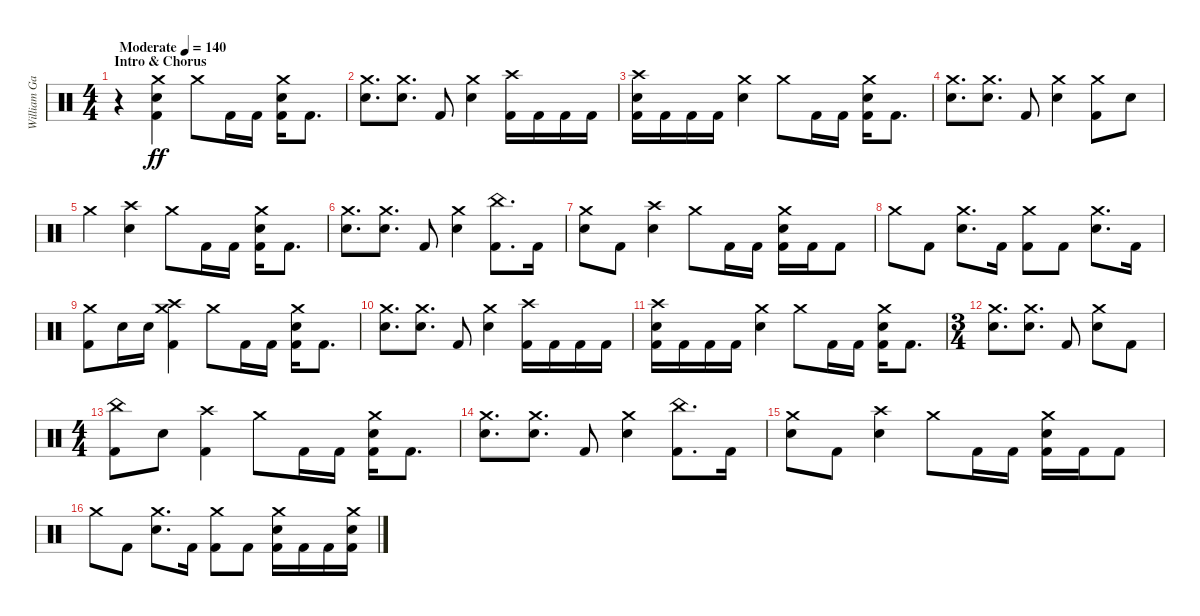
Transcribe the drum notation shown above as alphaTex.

\track ("William Gates (Drums)" "William Ga") {instrument percussion}
\staff {score}
\articulation defaults
\ts (4 4)
\section ("" "Intro & Chorus")
\tempo (140 "Moderate")
\clef neutral
\ks c
r.4{dy ff} ("Crash medium (hit)" "Snare (hit) 2" "Kick (hit) 2").4 "Crash medium (hit)".8 "Kick (hit) 2".16 "Kick (hit) 2".16 ("Crash medium (hit)" "Snare (hit) 2" "Kick (hit) 2").16 "Kick (hit) 2".8{d} |
("Crash medium (hit)" "Snare (hit) 2").8{d} ("Crash medium (hit)" "Snare (hit) 2").8{d} "Kick (hit) 2".8 ("Crash medium (hit)" "Snare (hit) 2").4 ("Crash high (hit)" "Kick (hit) 2").16 "Kick (hit) 2".16 "Kick (hit) 2".16 "Kick (hit) 2".16 |
("Crash high (hit)" "Snare (hit) 2" "Kick (hit) 2").16 "Kick (hit) 2".16 "Kick (hit) 2".16 "Kick (hit) 2".16 ("Crash medium (hit)" "Snare (hit) 2").4 "Crash medium (hit)".8 "Kick (hit) 2".16 "Kick (hit) 2".16 ("Crash medium (hit)" "Snare (hit) 2" "Kick (hit) 2").16 "Kick (hit) 2".8{d} |
("Crash medium (hit)" "Snare (hit) 2").8{d} ("Crash medium (hit)" "Snare (hit) 2").8{d} "Kick (hit) 2".8 ("Crash medium (hit)" "Snare (hit) 2").4 ("Crash medium (hit)" "Kick (hit) 2").8 "Snare (hit) 2".8 |
"Crash medium (hit)".4 ("Crash high (hit)" "Snare (hit) 2").4 "Crash medium (hit)".8 "Kick (hit) 2".16 "Kick (hit) 2".16 ("Crash medium (hit)" "Snare (hit) 2" "Kick (hit) 2").16 "Kick (hit) 2".8{d} |
("Crash medium (hit)" "Snare (hit) 2").8{d} ("Crash medium (hit)" "Snare (hit) 2").8{d} "Kick (hit) 2".8 ("Crash medium (hit)" "Snare (hit) 2").4 ("China (hit)" "Kick (hit) 2").8{d} "Kick (hit) 2".16 |
("Crash medium (hit)" "Snare (hit) 2").8 "Kick (hit) 2".8 ("Crash high (hit)" "Snare (hit) 2").4 "Crash medium (hit)".8 "Kick (hit) 2".16 "Kick (hit) 2".16 ("Crash medium (hit)" "Snare (hit) 2" "Kick (hit) 2").16 "Kick (hit) 2".16 "Kick (hit) 2".8 |
"Crash medium (hit)".8 "Kick (hit) 2".8 ("Crash medium (hit)" "Snare (hit) 2").8{d} "Kick (hit) 2".16 ("Crash medium (hit)" "Kick (hit) 2").8 "Kick (hit) 2".8 ("Crash medium (hit)" "Snare (hit) 2").8{d} "Kick (hit) 2".16 |
("Crash medium (hit)" "Kick (hit) 2").8 "Snare (hit) 2".16 "Snare (hit) 2".16 ("Crash medium (hit)" "Crash high (hit)" "Kick (hit) 2").4 "Crash medium (hit)".8 "Kick (hit) 2".16 "Kick (hit) 2".16 ("Crash medium (hit)" "Snare (hit) 2" "Kick (hit) 2").16 "Kick (hit) 2".8{d} |
("Crash medium (hit)" "Snare (hit) 2").8{d} ("Crash medium (hit)" "Snare (hit) 2").8{d} "Kick (hit) 2".8 ("Crash medium (hit)" "Snare (hit) 2").4 ("Crash high (hit)" "Kick (hit) 2").16 "Kick (hit) 2".16 "Kick (hit) 2".16 "Kick (hit) 2".16 |
("Crash high (hit)" "Snare (hit) 2" "Kick (hit) 2").16 "Kick (hit) 2".16 "Kick (hit) 2".16 "Kick (hit) 2".16 ("Crash medium (hit)" "Snare (hit) 2").4 "Crash medium (hit)".8 "Kick (hit) 2".16 "Kick (hit) 2".16 ("Crash medium (hit)" "Snare (hit) 2" "Kick (hit) 2").16 "Kick (hit) 2".8{d} |
\ts (3 4)
("Crash medium (hit)" "Snare (hit) 2").8{d} ("Crash medium (hit)" "Snare (hit) 2").8{d} "Kick (hit) 2".8 ("Crash medium (hit)" "Snare (hit) 2").8 "Kick (hit) 2".8 |
\ts (4 4)
("China (hit)" "Kick (hit) 2").8 "Snare (hit) 2".8 ("Crash high (hit)" "Kick (hit) 2").4 "Crash medium (hit)".8 "Kick (hit) 2".16 "Kick (hit) 2".16 ("Crash medium (hit)" "Snare (hit) 2" "Kick (hit) 2").16 "Kick (hit) 2".8{d} |
("Crash medium (hit)" "Snare (hit) 2").8{d} ("Crash medium (hit)" "Snare (hit) 2").8{d} "Kick (hit) 2".8 ("Crash medium (hit)" "Snare (hit) 2").4 ("China (hit)" "Kick (hit) 2").8{d} "Kick (hit) 2".16 |
("Crash medium (hit)" "Snare (hit) 2").8 "Kick (hit) 2".8 ("Crash high (hit)" "Snare (hit) 2").4 "Crash medium (hit)".8 "Kick (hit) 2".16 "Kick (hit) 2".16 ("Crash medium (hit)" "Snare (hit) 2" "Kick (hit) 2").16 "Kick (hit) 2".16 "Kick (hit) 2".8 |
"Crash medium (hit)".8 "Kick (hit) 2".8 ("Crash medium (hit)" "Snare (hit) 2").8{d} "Kick (hit) 2".16 ("Crash medium (hit)" "Kick (hit) 2").8 "Kick (hit) 2".8 ("Crash medium (hit)" "Snare (hit) 2" "Kick (hit) 2").16 "Kick (hit) 2".16 "Kick (hit) 2".16 ("Crash medium (hit)" "Snare (hit) 2" "Kick (hit) 2").16
